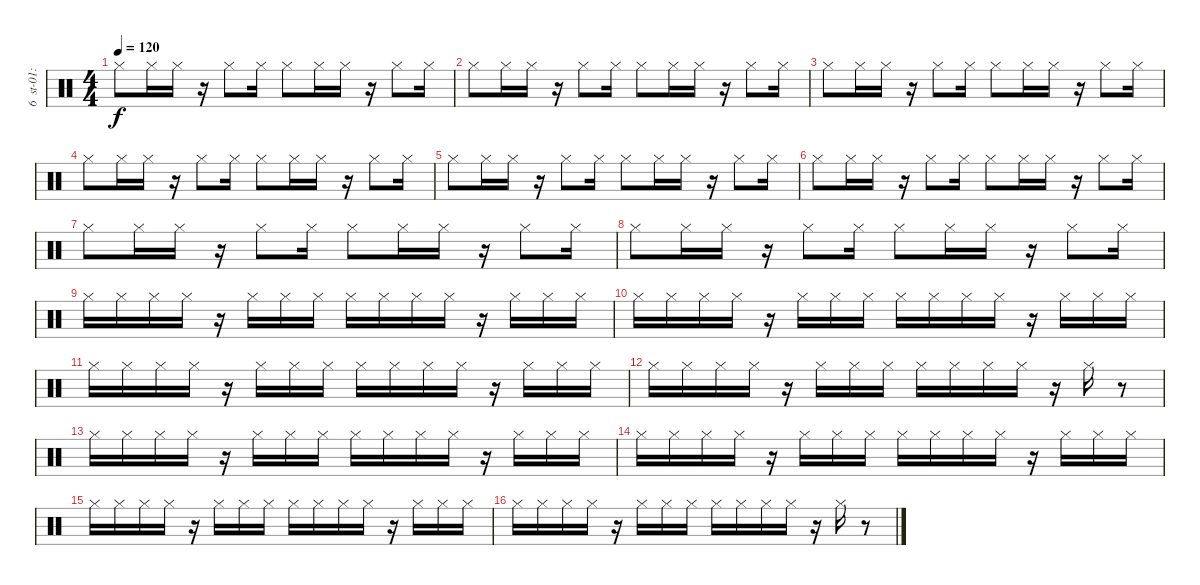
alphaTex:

\track (" 6  st-01:hihat2" " 6  st-01:") {instrument percussion}
\staff {score}
\articulation defaults
\ts (4 4)
\tempo 120
\clef neutral
\ks c "Hi-Hat (closed)".8{dy f} "Hi-Hat (closed)".16 "Hi-Hat (closed)".16
r.16 "Hi-Hat (closed)".8 "Hi-Hat (closed)".16 "Hi-Hat (closed)".8 "Hi-Hat (closed)".16 "Hi-Hat (closed)".16 r.16 "Hi-Hat (closed)".8 "Hi-Hat (closed)".16 |
"Hi-Hat (closed)".8 "Hi-Hat (closed)".16 "Hi-Hat (closed)".16 r.16 "Hi-Hat (closed)".8 "Hi-Hat (closed)".16 "Hi-Hat (closed)".8 "Hi-Hat (closed)".16 "Hi-Hat (closed)".16 r.16 "Hi-Hat (closed)".8 "Hi-Hat (closed)".16 |
"Hi-Hat (closed)".8 "Hi-Hat (closed)".16 "Hi-Hat (closed)".16 r.16 "Hi-Hat (closed)".8 "Hi-Hat (closed)".16 "Hi-Hat (closed)".8 "Hi-Hat (closed)".16 "Hi-Hat (closed)".16 r.16 "Hi-Hat (closed)".8 "Hi-Hat (closed)".16 |
"Hi-Hat (closed)".8 "Hi-Hat (closed)".16 "Hi-Hat (closed)".16 r.16 "Hi-Hat (closed)".8 "Hi-Hat (closed)".16 "Hi-Hat (closed)".8 "Hi-Hat (closed)".16 "Hi-Hat (closed)".16 r.16 "Hi-Hat (closed)".8 "Hi-Hat (closed)".16 |
"Hi-Hat (closed)".8 "Hi-Hat (closed)".16 "Hi-Hat (closed)".16 r.16 "Hi-Hat (closed)".8 "Hi-Hat (closed)".16 "Hi-Hat (closed)".8 "Hi-Hat (closed)".16 "Hi-Hat (closed)".16 r.16 "Hi-Hat (closed)".8 "Hi-Hat (closed)".16 |
"Hi-Hat (closed)".8 "Hi-Hat (closed)".16 "Hi-Hat (closed)".16 r.16 "Hi-Hat (closed)".8 "Hi-Hat (closed)".16 "Hi-Hat (closed)".8 "Hi-Hat (closed)".16 "Hi-Hat (closed)".16 r.16 "Hi-Hat (closed)".8 "Hi-Hat (closed)".16 |
"Hi-Hat (closed)".8 "Hi-Hat (closed)".16 "Hi-Hat (closed)".16 r.16 "Hi-Hat (closed)".8 "Hi-Hat (closed)".16 "Hi-Hat (closed)".8 "Hi-Hat (closed)".16 "Hi-Hat (closed)".16 r.16 "Hi-Hat (closed)".8 "Hi-Hat (closed)".16 |
"Hi-Hat (closed)".8 "Hi-Hat (closed)".16 "Hi-Hat (closed)".16 r.16 "Hi-Hat (closed)".8 "Hi-Hat (closed)".16 "Hi-Hat (closed)".8 "Hi-Hat (closed)".16 "Hi-Hat (closed)".16 r.16 "Hi-Hat (closed)".8 "Hi-Hat (closed)".16 |
"Hi-Hat (closed)".16 "Hi-Hat (closed)".16 "Hi-Hat (closed)".16 "Hi-Hat (closed)".16 r.16 "Hi-Hat (closed)".16 "Hi-Hat (closed)".16 "Hi-Hat (closed)".16 "Hi-Hat (closed)".16 "Hi-Hat (closed)".16 "Hi-Hat (closed)".16 "Hi-Hat (closed)".16 r.16 "Hi-Hat (closed)".16 "Hi-Hat (closed)".16 "Hi-Hat (closed)".16 |
"Hi-Hat (closed)".16 "Hi-Hat (closed)".16 "Hi-Hat (closed)".16 "Hi-Hat (closed)".16 r.16 "Hi-Hat (closed)".16 "Hi-Hat (closed)".16 "Hi-Hat (closed)".16 "Hi-Hat (closed)".16 "Hi-Hat (closed)".16 "Hi-Hat (closed)".16 "Hi-Hat (closed)".16 r.16 "Hi-Hat (closed)".16 "Hi-Hat (closed)".16 "Hi-Hat (closed)".16 |
"Hi-Hat (closed)".16 "Hi-Hat (closed)".16 "Hi-Hat (closed)".16 "Hi-Hat (closed)".16 r.16 "Hi-Hat (closed)".16 "Hi-Hat (closed)".16 "Hi-Hat (closed)".16 "Hi-Hat (closed)".16 "Hi-Hat (closed)".16 "Hi-Hat (closed)".16 "Hi-Hat (closed)".16 r.16 "Hi-Hat (closed)".16 "Hi-Hat (closed)".16 "Hi-Hat (closed)".16 |
"Hi-Hat (closed)".16 "Hi-Hat (closed)".16 "Hi-Hat (closed)".16 "Hi-Hat (closed)".16 r.16 "Hi-Hat (closed)".16 "Hi-Hat (closed)".16 "Hi-Hat (closed)".16 "Hi-Hat (closed)".16 "Hi-Hat (closed)".16 "Hi-Hat (closed)".16 "Hi-Hat (closed)".16 r.16 "Hi-Hat (closed)".16 r.8 |
"Hi-Hat (closed)".16 "Hi-Hat (closed)".16 "Hi-Hat (closed)".16 "Hi-Hat (closed)".16 r.16 "Hi-Hat (closed)".16 "Hi-Hat (closed)".16 "Hi-Hat (closed)".16 "Hi-Hat (closed)".16 "Hi-Hat (closed)".16 "Hi-Hat (closed)".16 "Hi-Hat (closed)".16 r.16 "Hi-Hat (closed)".16 "Hi-Hat (closed)".16 "Hi-Hat (closed)".16 |
"Hi-Hat (closed)".16 "Hi-Hat (closed)".16 "Hi-Hat (closed)".16 "Hi-Hat (closed)".16 r.16 "Hi-Hat (closed)".16 "Hi-Hat (closed)".16 "Hi-Hat (closed)".16 "Hi-Hat (closed)".16 "Hi-Hat (closed)".16 "Hi-Hat (closed)".16 "Hi-Hat (closed)".16 r.16 "Hi-Hat (closed)".16 "Hi-Hat (closed)".16 "Hi-Hat (closed)".16 |
"Hi-Hat (closed)".16 "Hi-Hat (closed)".16 "Hi-Hat (closed)".16 "Hi-Hat (closed)".16 r.16 "Hi-Hat (closed)".16 "Hi-Hat (closed)".16 "Hi-Hat (closed)".16 "Hi-Hat (closed)".16 "Hi-Hat (closed)".16 "Hi-Hat (closed)".16 "Hi-Hat (closed)".16 r.16 "Hi-Hat (closed)".16 "Hi-Hat (closed)".16 "Hi-Hat (closed)".16 |
"Hi-Hat (closed)".16 "Hi-Hat (closed)".16 "Hi-Hat (closed)".16 "Hi-Hat (closed)".16 r.16 "Hi-Hat (closed)".16 "Hi-Hat (closed)".16 "Hi-Hat (closed)".16 "Hi-Hat (closed)".16 "Hi-Hat (closed)".16 "Hi-Hat (closed)".16 "Hi-Hat (closed)".16 r.16 "Hi-Hat (closed)".16 r.8
